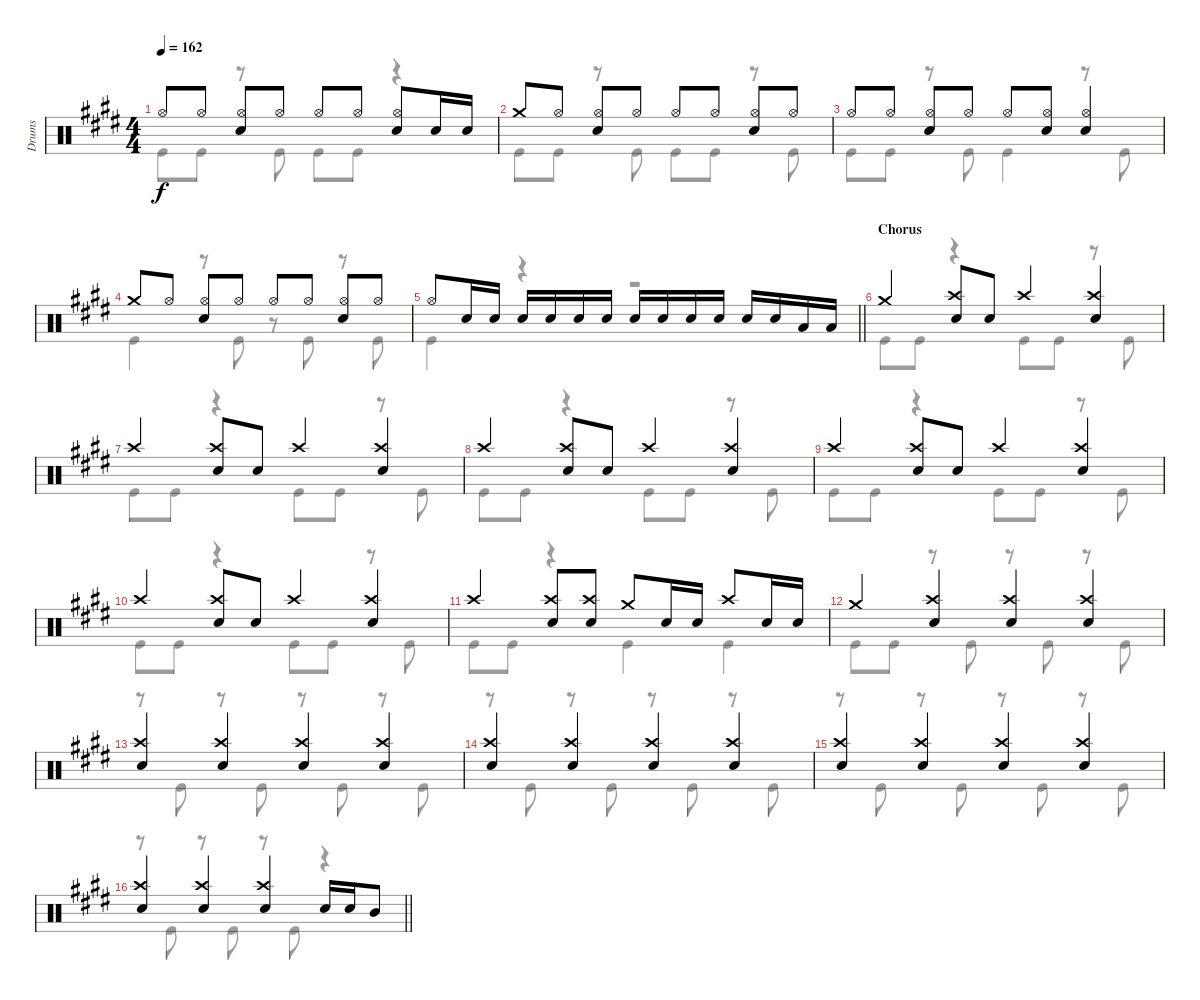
\track ("Drums" "Drums") {instrument percussion}
\staff {score}
\articulation defaults
\voice
\ts (4 4)
\tempo 162
\clef neutral
\ks e "Hi-Hat (open)".8{dy f} "Hi-Hat (open)".8
("Hi-Hat (open)" "Electric Snare (hit)").8 "Hi-Hat (open)".8 "Hi-Hat (open)".8 "Hi-Hat (open)".8 ("Hi-Hat (open)" "Electric Snare (hit)").8 "Electric Snare (hit)".16 "Electric Snare (hit)".16 |
"Crash medium (hit)".8 "Hi-Hat (open)".8 ("Hi-Hat (open)" "Electric Snare (hit)").8 "Hi-Hat (open)".8 "Hi-Hat (open)".8 "Hi-Hat (open)".8 ("Hi-Hat (open)" "Electric Snare (hit)").8 "Hi-Hat (open)".8 |
"Hi-Hat (open)".8 "Hi-Hat (open)".8 ("Hi-Hat (open)" "Electric Snare (hit)").8 "Hi-Hat (open)".8 "Hi-Hat (open)".8 ("Hi-Hat (open)" "Electric Snare (hit)").8 ("Hi-Hat (open)" "Electric Snare (hit)").4 |
"Crash medium (hit)".8 "Hi-Hat (open)".8 ("Hi-Hat (open)" "Electric Snare (hit)").8 "Hi-Hat (open)".8 "Hi-Hat (open)".8 "Hi-Hat (open)".8 ("Hi-Hat (open)" "Electric Snare (hit)").8 "Hi-Hat (open)".8 |
\barLineRight lightlight "Hi-Hat (open)".8 "Electric Snare (hit)".16 "Electric Snare (hit)".16 "Electric Snare (hit)".16 "Electric Snare (hit)".16 "Electric Snare (hit)".16 "Electric Snare (hit)".16 "Electric Snare (hit)".16 "Electric Snare (hit)".16 "Electric Snare (hit)".16 "Electric Snare (hit)".16 "Electric Snare (hit)".16 "Electric Snare (hit)".16 "Low Tom (hit)".16 "Low Tom (hit)".16
|
\section ("" "Chorus")
"Crash medium (hit)".4 ("Crash high (hit)" "Electric Snare (hit)").8 "Electric Snare (hit)".8 "Crash high (hit)".4 ("Crash high (hit)" "Electric Snare (hit)").4 |
"Crash high (hit)".4 ("Crash high (hit)" "Electric Snare (hit)").8 "Electric Snare (hit)".8 "Crash high (hit)".4 ("Crash high (hit)" "Electric Snare (hit)").4 |
"Crash high (hit)".4 ("Crash high (hit)" "Electric Snare (hit)").8 "Electric Snare (hit)".8 "Crash high (hit)".4 ("Crash high (hit)" "Electric Snare (hit)").4 |
"Crash high (hit)".4 ("Crash high (hit)" "Electric Snare (hit)").8 "Electric Snare (hit)".8 "Crash high (hit)".4 ("Crash high (hit)" "Electric Snare (hit)").4 |
"Crash high (hit)".4 ("Crash high (hit)" "Electric Snare (hit)").8 "Electric Snare (hit)".8 "Crash high (hit)".4 ("Crash high (hit)" "Electric Snare (hit)").4 |
"Crash high (hit)".4 ("Crash high (hit)" "Electric Snare (hit)").8 ("Crash high (hit)" "Electric Snare (hit)").8 "Crash medium (hit)".8 "Electric Snare (hit)".16 "Electric Snare (hit)".16 "Crash high (hit)".8 "Electric Snare (hit)".16 "Electric Snare (hit)".16 |
"Crash medium (hit)".4 ("Crash high (hit)" "Electric Snare (hit)").4 ("Crash high (hit)" "Electric Snare (hit)").4 ("Crash high (hit)" "Electric Snare (hit)").4 |
("Crash high (hit)" "Electric Snare (hit)").4 ("Crash high (hit)" "Electric Snare (hit)").4 ("Crash high (hit)" "Electric Snare (hit)").4 ("Crash high (hit)" "Electric Snare (hit)").4 |
("Crash high (hit)" "Electric Snare (hit)").4 ("Crash high (hit)" "Electric Snare (hit)").4 ("Crash high (hit)" "Electric Snare (hit)").4 ("Crash high (hit)" "Electric Snare (hit)").4 |
("Crash high (hit)" "Electric Snare (hit)").4 ("Crash high (hit)" "Electric Snare (hit)").4 ("Crash high (hit)" "Electric Snare (hit)").4 ("Crash high (hit)" "Electric Snare (hit)").4 |
\barLineRight lightlight
("Crash high (hit)" "Electric Snare (hit)").4 ("Crash high (hit)" "Electric Snare (hit)").4 ("Crash high (hit)" "Electric Snare (hit)").4 "Electric Snare (hit)".16 "Electric Snare (hit)".16 "Mid Tom (hit)".8
\voice
\clef neutral
\ottava regular
\simile none
\ks e "Kick (hit)".8{dy f} "Kick (hit)".8
r.8 "Kick (hit)".8 "Kick (hit)".8 "Kick (hit)".8 r.4 |
"Kick (hit)".8 "Kick (hit)".8 r.8 "Kick (hit)".8 "Kick (hit)".8 "Kick (hit)".8 r.8 "Kick (hit)".8 |
"Kick (hit)".8 "Kick (hit)".8 r.8 "Kick (hit)".8 "Kick (hit)".4 r.8 "Kick (hit)".8 |
"Kick (hit)".4 r.8 "Kick (hit)".8 r.8 "Kick (hit)".8 r.8 "Kick (hit)".8 |
\barLineRight lightlight "Kick (hit)".4
r.4 r.2 |
"Kick (hit)".8 "Kick (hit)".8 r.4 "Kick (hit)".8 "Kick (hit)".8 r.8 "Kick (hit)".8 |
"Kick (hit)".8 "Kick (hit)".8 r.4 "Kick (hit)".8 "Kick (hit)".8 r.8 "Kick (hit)".8 |
"Kick (hit)".8 "Kick (hit)".8 r.4 "Kick (hit)".8 "Kick (hit)".8 r.8 "Kick (hit)".8 |
"Kick (hit)".8 "Kick (hit)".8 r.4 "Kick (hit)".8 "Kick (hit)".8 r.8 "Kick (hit)".8 |
"Kick (hit)".8 "Kick (hit)".8 r.4 "Kick (hit)".8 "Kick (hit)".8 r.8 "Kick (hit)".8 |
"Kick (hit)".8 "Kick (hit)".8 r.4 "Kick (hit)".4 "Kick (hit)".4 |
"Kick (hit)".8 "Kick (hit)".8 r.8 "Kick (hit)".8 r.8 "Kick (hit)".8 r.8 "Kick (hit)".8 |
r.8 "Kick (hit)".8 r.8 "Kick (hit)".8 r.8 "Kick (hit)".8 r.8 "Kick (hit)".8 |
r.8 "Kick (hit)".8 r.8 "Kick (hit)".8 r.8 "Kick (hit)".8 r.8 "Kick (hit)".8 |
r.8 "Kick (hit)".8 r.8 "Kick (hit)".8 r.8 "Kick (hit)".8 r.8 "Kick (hit)".8 |
\barLineRight lightlight
r.8 "Kick (hit)".8 r.8 "Kick (hit)".8 r.8 "Kick (hit)".8 r.4
